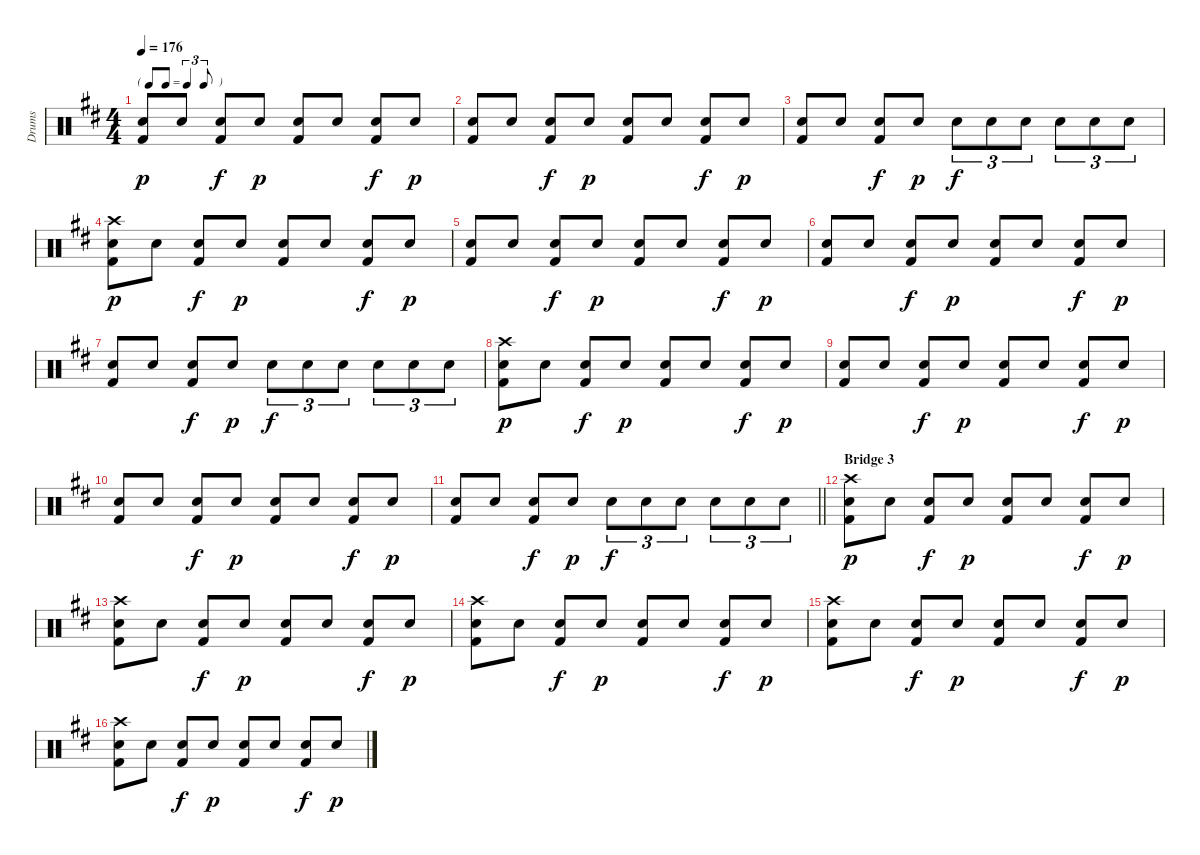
\track ("Drums" "Drums") {instrument percussion}
\staff {score}
\articulation defaults
\ts (4 4)
\tf triplet8th
\tempo 176
\clef neutral
\ks d
("Snare (hit) 2" "Kick (hit) 2").8{dy p} "Snare (hit) 2".8 ("Snare (hit) 2" "Kick (hit) 2").8{dy f} "Snare (hit) 2".8{dy p} ("Snare (hit) 2" "Kick (hit) 2").8 "Snare (hit) 2".8 ("Snare (hit) 2" "Kick (hit) 2").8{dy f} "Snare (hit) 2".8{dy p} |
("Snare (hit) 2" "Kick (hit) 2").8 "Snare (hit) 2".8 ("Snare (hit) 2" "Kick (hit) 2").8{dy f} "Snare (hit) 2".8{dy p} ("Snare (hit) 2" "Kick (hit) 2").8 "Snare (hit) 2".8 ("Snare (hit) 2" "Kick (hit) 2").8{dy f} "Snare (hit) 2".8{dy p} |
("Snare (hit) 2" "Kick (hit) 2").8 "Snare (hit) 2".8 ("Snare (hit) 2" "Kick (hit) 2").8{dy f} "Snare (hit) 2".8{dy p} "Snare (hit) 2".8{tu (3 2) dy f} "Snare (hit) 2".8{tu (3 2)} "Snare (hit) 2".8{tu (3 2)} "Snare (hit) 2".8{tu (3 2)} "Snare (hit) 2".8{tu (3 2)} "Snare (hit) 2".8{tu (3 2)} |
("Crash high (hit)" "Snare (hit) 2" "Kick (hit) 2").8{dy p} "Snare (hit) 2".8 ("Snare (hit) 2" "Kick (hit) 2").8{dy f} "Snare (hit) 2".8{dy p} ("Snare (hit) 2" "Kick (hit) 2").8 "Snare (hit) 2".8 ("Snare (hit) 2" "Kick (hit) 2").8{dy f} "Snare (hit) 2".8{dy p} |
("Snare (hit) 2" "Kick (hit) 2").8 "Snare (hit) 2".8 ("Snare (hit) 2" "Kick (hit) 2").8{dy f} "Snare (hit) 2".8{dy p} ("Snare (hit) 2" "Kick (hit) 2").8 "Snare (hit) 2".8 ("Snare (hit) 2" "Kick (hit) 2").8{dy f} "Snare (hit) 2".8{dy p} |
("Snare (hit) 2" "Kick (hit) 2").8 "Snare (hit) 2".8 ("Snare (hit) 2" "Kick (hit) 2").8{dy f} "Snare (hit) 2".8{dy p} ("Snare (hit) 2" "Kick (hit) 2").8 "Snare (hit) 2".8 ("Snare (hit) 2" "Kick (hit) 2").8{dy f} "Snare (hit) 2".8{dy p} |
("Snare (hit) 2" "Kick (hit) 2").8 "Snare (hit) 2".8 ("Snare (hit) 2" "Kick (hit) 2").8{dy f} "Snare (hit) 2".8{dy p} "Snare (hit) 2".8{tu (3 2) dy f} "Snare (hit) 2".8{tu (3 2)} "Snare (hit) 2".8{tu (3 2)} "Snare (hit) 2".8{tu (3 2)} "Snare (hit) 2".8{tu (3 2)} "Snare (hit) 2".8{tu (3 2)} |
("Crash high (hit)" "Snare (hit) 2" "Kick (hit) 2").8{dy p} "Snare (hit) 2".8 ("Snare (hit) 2" "Kick (hit) 2").8{dy f} "Snare (hit) 2".8{dy p} ("Snare (hit) 2" "Kick (hit) 2").8 "Snare (hit) 2".8 ("Snare (hit) 2" "Kick (hit) 2").8{dy f} "Snare (hit) 2".8{dy p} |
("Snare (hit) 2" "Kick (hit) 2").8 "Snare (hit) 2".8 ("Snare (hit) 2" "Kick (hit) 2").8{dy f} "Snare (hit) 2".8{dy p} ("Snare (hit) 2" "Kick (hit) 2").8 "Snare (hit) 2".8 ("Snare (hit) 2" "Kick (hit) 2").8{dy f} "Snare (hit) 2".8{dy p} |
("Snare (hit) 2" "Kick (hit) 2").8 "Snare (hit) 2".8 ("Snare (hit) 2" "Kick (hit) 2").8{dy f} "Snare (hit) 2".8{dy p} ("Snare (hit) 2" "Kick (hit) 2").8 "Snare (hit) 2".8 ("Snare (hit) 2" "Kick (hit) 2").8{dy f} "Snare (hit) 2".8{dy p} |
\barLineRight lightlight
("Snare (hit) 2" "Kick (hit) 2").8 "Snare (hit) 2".8 ("Snare (hit) 2" "Kick (hit) 2").8{dy f} "Snare (hit) 2".8{dy p} "Snare (hit) 2".8{tu (3 2) dy f} "Snare (hit) 2".8{tu (3 2)} "Snare (hit) 2".8{tu (3 2)} "Snare (hit) 2".8{tu (3 2)} "Snare (hit) 2".8{tu (3 2)} "Snare (hit) 2".8{tu (3 2)} |
\section ("" "Bridge 3")
("Crash high (hit)" "Snare (hit) 2" "Kick (hit) 2").8{dy p} "Snare (hit) 2".8 ("Snare (hit) 2" "Kick (hit) 2").8{dy f} "Snare (hit) 2".8{dy p} ("Snare (hit) 2" "Kick (hit) 2").8 "Snare (hit) 2".8 ("Snare (hit) 2" "Kick (hit) 2").8{dy f} "Snare (hit) 2".8{dy p} |
("Crash high (hit)" "Snare (hit) 2" "Kick (hit) 2").8 "Snare (hit) 2".8 ("Snare (hit) 2" "Kick (hit) 2").8{dy f} "Snare (hit) 2".8{dy p} ("Snare (hit) 2" "Kick (hit) 2").8 "Snare (hit) 2".8 ("Snare (hit) 2" "Kick (hit) 2").8{dy f} "Snare (hit) 2".8{dy p} |
("Crash high (hit)" "Snare (hit) 2" "Kick (hit) 2").8 "Snare (hit) 2".8 ("Snare (hit) 2" "Kick (hit) 2").8{dy f} "Snare (hit) 2".8{dy p} ("Snare (hit) 2" "Kick (hit) 2").8 "Snare (hit) 2".8 ("Snare (hit) 2" "Kick (hit) 2").8{dy f} "Snare (hit) 2".8{dy p} |
("Crash high (hit)" "Snare (hit) 2" "Kick (hit) 2").8 "Snare (hit) 2".8 ("Snare (hit) 2" "Kick (hit) 2").8{dy f} "Snare (hit) 2".8{dy p} ("Snare (hit) 2" "Kick (hit) 2").8 "Snare (hit) 2".8 ("Snare (hit) 2" "Kick (hit) 2").8{dy f} "Snare (hit) 2".8{dy p} |
("Crash high (hit)" "Snare (hit) 2" "Kick (hit) 2").8 "Snare (hit) 2".8 ("Snare (hit) 2" "Kick (hit) 2").8{dy f} "Snare (hit) 2".8{dy p} ("Snare (hit) 2" "Kick (hit) 2").8 "Snare (hit) 2".8 ("Snare (hit) 2" "Kick (hit) 2").8{dy f} "Snare (hit) 2".8{dy p}
